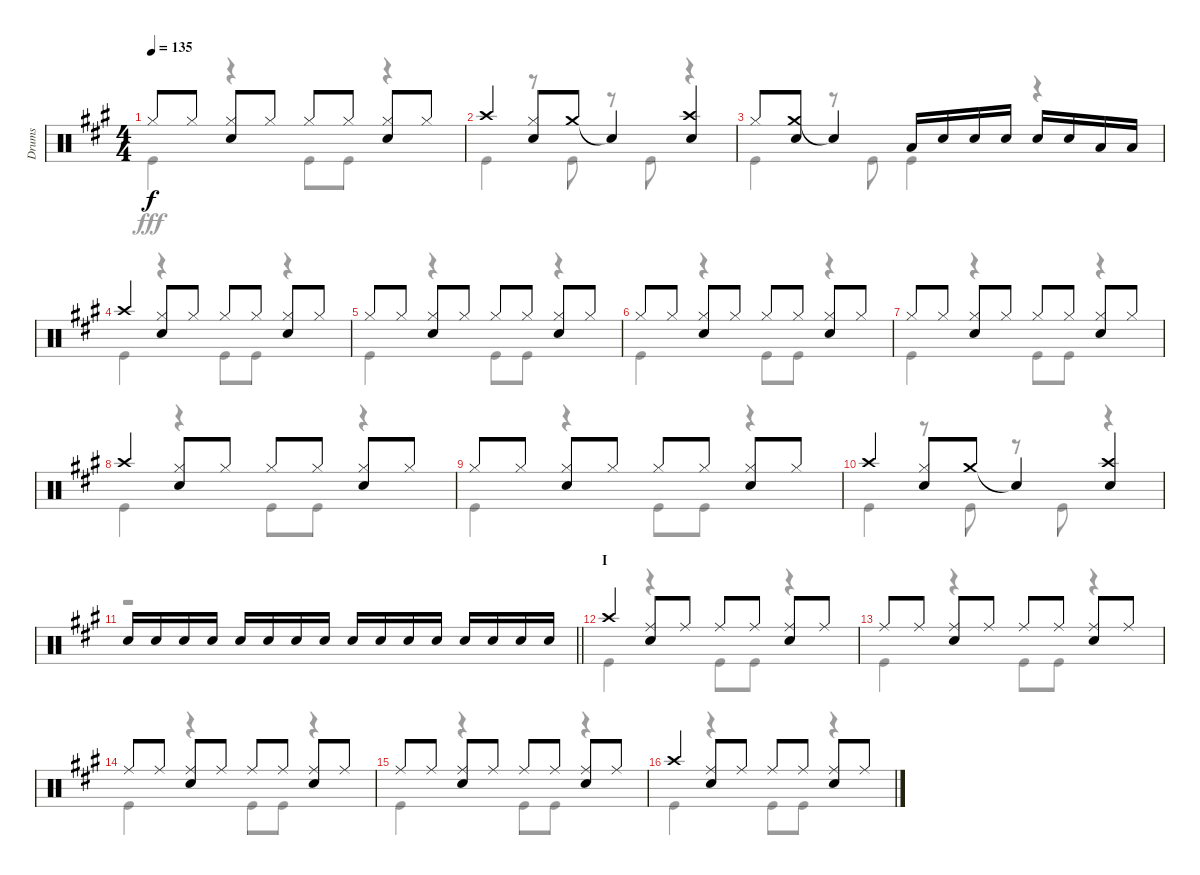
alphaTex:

\track ("Drums" "Drums") {instrument percussion}
\staff {score}
\articulation defaults
\voice
\ts (4 4)
\tempo 135
\clef neutral
\ks a "Hi-Hat (closed)".8{dy f} "Hi-Hat (closed)".8
("Hi-Hat (closed)" "Snare (hit) 2").8 "Hi-Hat (closed)".8 "Hi-Hat (closed)".8 "Hi-Hat (closed)".8 ("Hi-Hat (closed)" "Snare (hit) 2").8 "Hi-Hat (closed)".8 |
"Crash high (hit)".4 ("Hi-Hat (closed)" "Snare (hit) 2").8 "Crash medium (hit)".8 "Snare (hit)"{t}.4 ("Crash high (hit)" "Snare (hit) 2").4 |
"Hi-Hat (closed)".8 ("Crash medium (hit)" "Snare (hit) 2").8 "Snare (hit)"{t}.4 "Low Tom (hit)".16 "Snare (hit) 2".16 "Snare (hit) 2".16 "Snare (hit) 2".16 "Snare (hit) 2".16 "Snare (hit) 2".16 "Low Tom (hit)".16 "Low Tom (hit)".16 |
"Crash high (hit)".4 ("Hi-Hat (closed)" "Snare (hit) 2").8 "Hi-Hat (closed)".8 "Hi-Hat (closed)".8 "Hi-Hat (closed)".8 ("Hi-Hat (closed)" "Snare (hit) 2").8 "Hi-Hat (closed)".8 |
"Hi-Hat (closed)".8 "Hi-Hat (closed)".8 ("Hi-Hat (closed)" "Snare (hit) 2").8 "Hi-Hat (closed)".8 "Hi-Hat (closed)".8 "Hi-Hat (closed)".8 ("Hi-Hat (closed)" "Snare (hit) 2").8 "Hi-Hat (closed)".8 |
"Hi-Hat (closed)".8 "Hi-Hat (closed)".8 ("Hi-Hat (closed)" "Snare (hit) 2").8 "Hi-Hat (closed)".8 "Hi-Hat (closed)".8 "Hi-Hat (closed)".8 ("Hi-Hat (closed)" "Snare (hit) 2").8 "Hi-Hat (closed)".8 |
"Hi-Hat (closed)".8 "Hi-Hat (closed)".8 ("Hi-Hat (closed)" "Snare (hit) 2").8 "Hi-Hat (closed)".8 "Hi-Hat (closed)".8 "Hi-Hat (closed)".8 ("Hi-Hat (closed)" "Snare (hit) 2").8 "Hi-Hat (closed)".8 |
"Crash high (hit)".4 ("Hi-Hat (closed)" "Snare (hit) 2").8 "Hi-Hat (closed)".8 "Hi-Hat (closed)".8 "Hi-Hat (closed)".8 ("Hi-Hat (closed)" "Snare (hit) 2").8 "Hi-Hat (closed)".8 |
"Hi-Hat (closed)".8 "Hi-Hat (closed)".8 ("Hi-Hat (closed)" "Snare (hit) 2").8 "Hi-Hat (closed)".8 "Hi-Hat (closed)".8 "Hi-Hat (closed)".8 ("Hi-Hat (closed)" "Snare (hit) 2").8 "Hi-Hat (closed)".8 |
"Crash high (hit)".4 ("Hi-Hat (closed)" "Snare (hit) 2").8 "Crash medium (hit)".8 "Snare (hit)"{t}.4 ("Crash high (hit)" "Snare (hit) 2").4 |
\barLineRight lightlight "Snare (hit) 2".16 "Snare (hit) 2".16 "Snare (hit) 2".16 "Snare (hit) 2".16 "Snare (hit) 2".16 "Snare (hit) 2".16 "Snare (hit) 2".16 "Snare (hit) 2".16 "Snare (hit) 2".16 "Snare (hit) 2".16 "Snare (hit) 2".16 "Snare (hit) 2".16 "Snare (hit) 2".16 "Snare (hit) 2".16 "Snare (hit) 2".16 "Snare (hit) 2".16
|
\section ("" "I")
"Crash high (hit)".4 ("Ride (middle)" "Snare (hit) 2").8 "Ride (middle)".8 "Ride (middle)".8 "Ride (middle)".8 ("Ride (middle)" "Snare (hit) 2").8 "Ride (middle)".8 |
"Ride (middle)".8 "Ride (middle)".8 ("Ride (middle)" "Snare (hit) 2").8 "Ride (middle)".8 "Ride (middle)".8 "Ride (middle)".8 ("Ride (middle)" "Snare (hit) 2").8 "Ride (middle)".8 |
"Ride (middle)".8 "Ride (middle)".8 ("Ride (middle)" "Snare (hit) 2").8 "Ride (middle)".8 "Ride (middle)".8 "Ride (middle)".8 ("Ride (middle)" "Snare (hit) 2").8 "Ride (middle)".8 |
"Ride (middle)".8 "Ride (middle)".8 ("Ride (middle)" "Snare (hit) 2").8 "Ride (middle)".8 "Ride (middle)".8 "Ride (middle)".8 ("Ride (middle)" "Snare (hit) 2").8 "Ride (middle)".8 |
"Crash high (hit)".4 ("Ride (middle)" "Snare (hit) 2").8 "Ride (middle)".8 "Ride (middle)".8 "Ride (middle)".8 ("Ride (middle)" "Snare (hit) 2").8 "Ride (middle)".8
\voice
\clef neutral
\ottava regular
\simile none
\ks a "Kick (hit)".4{dy fff}
r.4 "Kick (hit)".8 "Kick (hit)".8 r.4 |
"Kick (hit)".4 r.8 "Kick (hit)".8 r.8 "Kick (hit)".8 r.4 |
"Kick (hit)".4 r.8 "Kick (hit)".8 "Kick (hit)".4 r.4 |
"Kick (hit)".4 r.4 "Kick (hit)".8 "Kick (hit)".8 r.4 |
"Kick (hit)".4 r.4 "Kick (hit)".8 "Kick (hit)".8 r.4 |
"Kick (hit)".4 r.4 "Kick (hit)".8 "Kick (hit)".8 r.4 |
"Kick (hit)".4 r.4 "Kick (hit)".8 "Kick (hit)".8 r.4 |
"Kick (hit)".4 r.4 "Kick (hit)".8 "Kick (hit)".8 r.4 |
"Kick (hit)".4 r.4 "Kick (hit)".8 "Kick (hit)".8 r.4 |
"Kick (hit)".4 r.8 "Kick (hit)".8 r.8 "Kick (hit)".8 r.4 |
\barLineRight lightlight
r.1 |
"Kick (hit)".4 r.4 "Kick (hit)".8 "Kick (hit)".8 r.4 |
"Kick (hit)".4 r.4 "Kick (hit)".8 "Kick (hit)".8 r.4 |
"Kick (hit)".4 r.4 "Kick (hit)".8 "Kick (hit)".8 r.4 |
"Kick (hit)".4 r.4 "Kick (hit)".8 "Kick (hit)".8 r.4 |
"Kick (hit)".4 r.4 "Kick (hit)".8 "Kick (hit)".8 r.4
